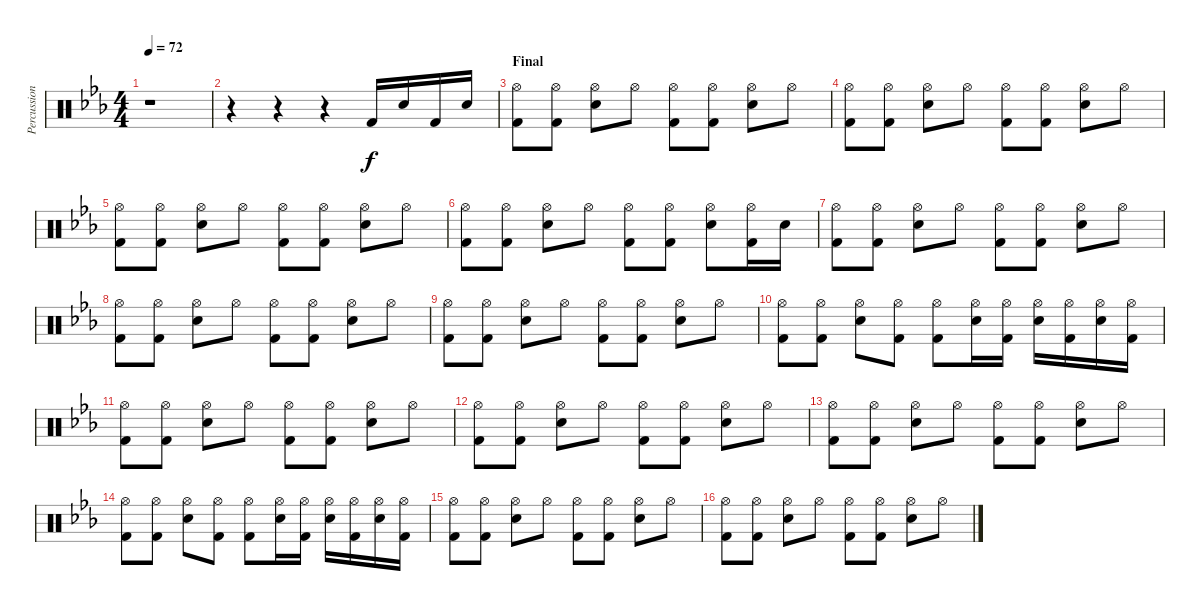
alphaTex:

\track ("Percussions" "Percussion") {instrument percussion}
\staff {score}
\articulation defaults
\ts (4 4)
\tempo 72
\clef neutral
\ks eb
r.1{dy f} |
r.4 r.4 r.4 "Kick (hit) 2".16 "Snare (hit) 2".16 "Kick (hit) 2".16 "Snare (hit) 2".16 |
\section ("" "Final")
("Hi-Hat (open)" "Kick (hit) 2").8 ("Hi-Hat (open)" "Kick (hit) 2").8 ("Hi-Hat (open)" "Snare (hit) 2").8 "Hi-Hat (open)".8 ("Hi-Hat (open)" "Kick (hit) 2").8 ("Hi-Hat (open)" "Kick (hit) 2").8 ("Hi-Hat (open)" "Snare (hit) 2").8 "Hi-Hat (open)".8 |
("Hi-Hat (open)" "Kick (hit) 2").8 ("Hi-Hat (open)" "Kick (hit) 2").8 ("Hi-Hat (open)" "Snare (hit) 2").8 "Hi-Hat (open)".8 ("Hi-Hat (open)" "Kick (hit) 2").8 ("Hi-Hat (open)" "Kick (hit) 2").8 ("Hi-Hat (open)" "Snare (hit) 2").8 "Hi-Hat (open)".8 |
("Hi-Hat (open)" "Kick (hit) 2").8 ("Hi-Hat (open)" "Kick (hit) 2").8 ("Hi-Hat (open)" "Snare (hit) 2").8 "Hi-Hat (open)".8 ("Hi-Hat (open)" "Kick (hit) 2").8 ("Hi-Hat (open)" "Kick (hit) 2").8 ("Hi-Hat (open)" "Snare (hit) 2").8 "Hi-Hat (open)".8 |
("Hi-Hat (open)" "Kick (hit) 2").8 ("Hi-Hat (open)" "Kick (hit) 2").8 ("Hi-Hat (open)" "Snare (hit) 2").8 "Hi-Hat (open)".8 ("Hi-Hat (open)" "Kick (hit) 2").8 ("Hi-Hat (open)" "Kick (hit) 2").8 ("Hi-Hat (open)" "Snare (hit) 2").8 ("Hi-Hat (open)" "Kick (hit) 2").16 "Snare (hit) 2".16 |
("Hi-Hat (open)" "Kick (hit) 2").8 ("Hi-Hat (open)" "Kick (hit) 2").8 ("Hi-Hat (open)" "Snare (hit) 2").8 "Hi-Hat (open)".8 ("Hi-Hat (open)" "Kick (hit) 2").8 ("Hi-Hat (open)" "Kick (hit) 2").8 ("Hi-Hat (open)" "Snare (hit) 2").8 "Hi-Hat (open)".8 |
("Hi-Hat (open)" "Kick (hit) 2").8 ("Hi-Hat (open)" "Kick (hit) 2").8 ("Hi-Hat (open)" "Snare (hit) 2").8 "Hi-Hat (open)".8 ("Hi-Hat (open)" "Kick (hit) 2").8 ("Hi-Hat (open)" "Kick (hit) 2").8 ("Hi-Hat (open)" "Snare (hit) 2").8 "Hi-Hat (open)".8 |
("Hi-Hat (open)" "Kick (hit) 2").8 ("Hi-Hat (open)" "Kick (hit) 2").8 ("Hi-Hat (open)" "Snare (hit) 2").8 "Hi-Hat (open)".8 ("Hi-Hat (open)" "Kick (hit) 2").8 ("Hi-Hat (open)" "Kick (hit) 2").8 ("Hi-Hat (open)" "Snare (hit) 2").8 "Hi-Hat (open)".8 |
("Hi-Hat (open)" "Kick (hit) 2").8 ("Hi-Hat (open)" "Kick (hit) 2").8 ("Hi-Hat (open)" "Snare (hit) 2").8 ("Hi-Hat (open)" "Kick (hit) 2").8 ("Hi-Hat (open)" "Kick (hit) 2").8 ("Hi-Hat (open)" "Snare (hit) 2").16 ("Hi-Hat (open)" "Kick (hit) 2").16 ("Hi-Hat (open)" "Snare (hit) 2").16 ("Hi-Hat (open)" "Kick (hit) 2").16 ("Hi-Hat (open)" "Snare (hit) 2").16 ("Kick (hit) 2" "Hi-Hat (open)").16 |
("Hi-Hat (open)" "Kick (hit) 2").8 ("Hi-Hat (open)" "Kick (hit) 2").8 ("Hi-Hat (open)" "Snare (hit) 2").8 "Hi-Hat (open)".8 ("Hi-Hat (open)" "Kick (hit) 2").8 ("Hi-Hat (open)" "Kick (hit) 2").8 ("Hi-Hat (open)" "Snare (hit) 2").8 "Hi-Hat (open)".8 |
("Hi-Hat (open)" "Kick (hit) 2").8 ("Hi-Hat (open)" "Kick (hit) 2").8 ("Hi-Hat (open)" "Snare (hit) 2").8 "Hi-Hat (open)".8 ("Hi-Hat (open)" "Kick (hit) 2").8 ("Hi-Hat (open)" "Kick (hit) 2").8 ("Hi-Hat (open)" "Snare (hit) 2").8 "Hi-Hat (open)".8 |
("Hi-Hat (open)" "Kick (hit) 2").8 ("Hi-Hat (open)" "Kick (hit) 2").8 ("Hi-Hat (open)" "Snare (hit) 2").8 "Hi-Hat (open)".8 ("Hi-Hat (open)" "Kick (hit) 2").8 ("Hi-Hat (open)" "Kick (hit) 2").8 ("Hi-Hat (open)" "Snare (hit) 2").8 "Hi-Hat (open)".8 |
("Hi-Hat (open)" "Kick (hit) 2").8 ("Hi-Hat (open)" "Kick (hit) 2").8 ("Hi-Hat (open)" "Snare (hit) 2").8 ("Hi-Hat (open)" "Kick (hit) 2").8 ("Hi-Hat (open)" "Kick (hit) 2").8 ("Hi-Hat (open)" "Snare (hit) 2").16 ("Hi-Hat (open)" "Kick (hit) 2").16 ("Hi-Hat (open)" "Snare (hit) 2").16 ("Hi-Hat (open)" "Kick (hit) 2").16 ("Hi-Hat (open)" "Snare (hit) 2").16 ("Kick (hit) 2" "Hi-Hat (open)").16 |
("Hi-Hat (open)" "Kick (hit) 2").8 ("Hi-Hat (open)" "Kick (hit) 2").8 ("Hi-Hat (open)" "Snare (hit) 2").8 "Hi-Hat (open)".8 ("Hi-Hat (open)" "Kick (hit) 2").8 ("Hi-Hat (open)" "Kick (hit) 2").8 ("Hi-Hat (open)" "Snare (hit) 2").8 "Hi-Hat (open)".8 |
("Hi-Hat (open)" "Kick (hit) 2").8 ("Hi-Hat (open)" "Kick (hit) 2").8 ("Hi-Hat (open)" "Snare (hit) 2").8 "Hi-Hat (open)".8 ("Hi-Hat (open)" "Kick (hit) 2").8 ("Hi-Hat (open)" "Kick (hit) 2").8 ("Hi-Hat (open)" "Snare (hit) 2").8 "Hi-Hat (open)".8
